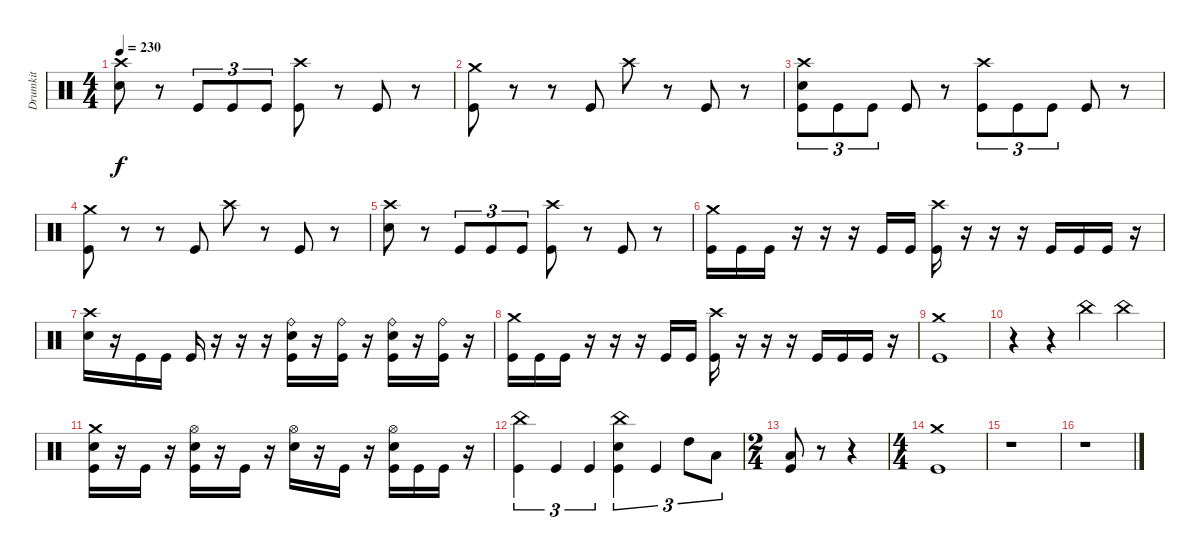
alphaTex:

\track ("Drumkit" "Drumkit") {instrument percussion}
\staff {score}
\articulation defaults
\ts (4 4)
\tempo 230
\clef neutral
\ks c
("Crash high (hit)" "Snare (hit) 2").8{dy f} r.8 "Kick (hit)".8{tu (3 2)} "Kick (hit)".8{tu (3 2)} "Kick (hit)".8{tu (3 2)} ("Crash high (hit)" "Kick (hit)").8 r.8 "Kick (hit)".8 r.8 |
("Crash medium (hit)" "Kick (hit)").8 r.8 r.8 "Kick (hit)".8 "Crash high (hit)".8 r.8 "Kick (hit)".8 r.8 |
("Crash high (hit)" "Snare (hit) 2" "Kick (hit)").8{tu (3 2)} "Kick (hit)".8{tu (3 2)} "Kick (hit)".8{tu (3 2)} "Kick (hit)".8 r.8 ("Crash high (hit)" "Kick (hit)").8{tu (3 2)} "Kick (hit)".8{tu (3 2)} "Kick (hit)".8{tu (3 2)} "Kick (hit)".8 r.8 |
("Crash medium (hit)" "Kick (hit)").8 r.8 r.8 "Kick (hit)".8 "Crash high (hit)".8 r.8 "Kick (hit)".8 r.8 |
("Crash high (hit)" "Snare (hit) 2").8 r.8 "Kick (hit)".8{tu (3 2)} "Kick (hit)".8{tu (3 2)} "Kick (hit)".8{tu (3 2)} ("Crash high (hit)" "Kick (hit)").8 r.8 "Kick (hit)".8 r.8 |
("Crash medium (hit)" "Kick (hit)").16 "Kick (hit)".16 "Kick (hit)".16 r.16 r.16 r.16 "Kick (hit)".16 "Kick (hit)".16 ("Crash high (hit)" "Kick (hit)").16 r.16 r.16 r.16 "Kick (hit)".16 "Kick (hit)".16 "Kick (hit)".16 r.16 |
("Crash high (hit)" "Snare (hit) 2").16 r.16 "Kick (hit)".16 "Kick (hit)".16 "Kick (hit)".16 r.16 r.16 r.16 ("Ride (bell)" "Snare (hit) 2" "Kick (hit)").16 r.16 ("Ride (bell)" "Kick (hit)").16 r.16 ("Ride (bell)" "Snare (hit) 2" "Kick (hit)").16 r.16 ("Ride (bell)" "Kick (hit)").16 r.16 |
("Crash medium (hit)" "Kick (hit)").16 "Kick (hit)".16 "Kick (hit)".16 r.16 r.16 r.16 "Kick (hit)".16 "Kick (hit)".16 ("Crash high (hit)" "Kick (hit)").16 r.16 r.16 r.16 "Kick (hit)".16 "Kick (hit)".16 "Kick (hit)".16 r.16 |
("Crash medium (hit)" "Kick (hit)").1 |
r.4 r.4 "China (hit)".4 "China (hit)".4 |
("Crash medium (hit)" "Snare (hit) 2" "Kick (hit)").16 r.16 "Kick (hit)".16 r.16 ("Hi-Hat (open)" "Snare (hit) 2" "Kick (hit)").16 r.16 "Kick (hit)".16 r.16 ("Hi-Hat (open)" "Snare (hit) 2").16 r.16 "Kick (hit)".16 r.16 ("Hi-Hat (open)" "Snare (hit) 2" "Kick (hit)").16 "Kick (hit)".16 "Kick (hit)".16 r.16 |
("China (hit)" "Kick (hit)").4{tu (3 2)} "Kick (hit)".4{tu (3 2)} "Kick (hit)".4{tu (3 2)} ("China (hit)" "Snare (hit) 2" "Kick (hit)").4{tu (3 2)} "Kick (hit)".4{tu (3 2)} "High Tom (hit)".8{tu (3 2)} "Low Tom (hit)".8{tu (3 2)} |
\ts (2 4)
("Low Floor Tom (hit)" "Kick (hit)").8 r.8 r.4 |
\ts (4 4)
("Crash medium (hit)" "Kick (hit)").1 |
r.1 |
r.1
